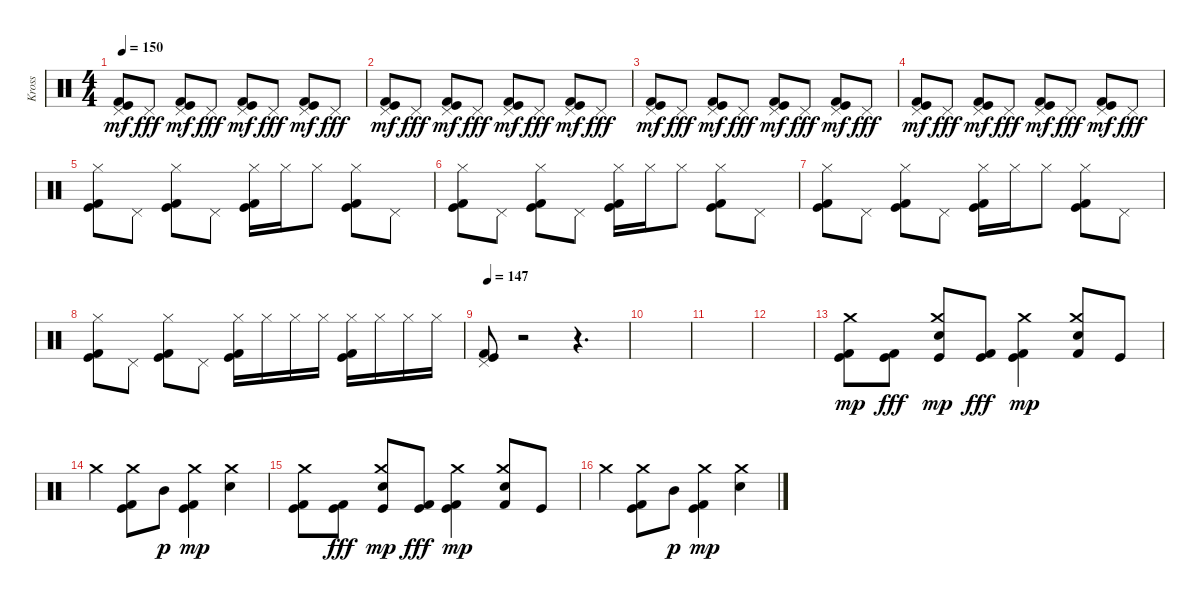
\track ("Kross" "Kross") {instrument percussion}
\staff {score}
\articulation defaults
\ts (4 4)
\tempo 150
\clef neutral
\ks c
("Kick (hit)" "Kick (hit) 2" "Pedal Hi-Hat (hit)").8{dy mf} "Pedal Hi-Hat (hit)".8{dy fff} ("Kick (hit)" "Kick (hit) 2" "Pedal Hi-Hat (hit)").8{dy mf} "Pedal Hi-Hat (hit)".8{dy fff} ("Kick (hit)" "Kick (hit) 2" "Pedal Hi-Hat (hit)").8{dy mf} "Pedal Hi-Hat (hit)".8{dy fff} ("Kick (hit)" "Kick (hit) 2" "Pedal Hi-Hat (hit)").8{dy mf} "Pedal Hi-Hat (hit)".8{dy fff} |
("Kick (hit)" "Kick (hit) 2" "Pedal Hi-Hat (hit)").8{dy mf} "Pedal Hi-Hat (hit)".8{dy fff} ("Kick (hit)" "Kick (hit) 2" "Pedal Hi-Hat (hit)").8{dy mf} "Pedal Hi-Hat (hit)".8{dy fff} ("Kick (hit)" "Kick (hit) 2" "Pedal Hi-Hat (hit)").8{dy mf} "Pedal Hi-Hat (hit)".8{dy fff} ("Kick (hit)" "Kick (hit) 2" "Pedal Hi-Hat (hit)").8{dy mf} "Pedal Hi-Hat (hit)".8{dy fff} |
("Kick (hit)" "Kick (hit) 2" "Pedal Hi-Hat (hit)").8{dy mf} "Pedal Hi-Hat (hit)".8{dy fff} ("Kick (hit)" "Kick (hit) 2" "Pedal Hi-Hat (hit)").8{dy mf} "Pedal Hi-Hat (hit)".8{dy fff} ("Kick (hit)" "Kick (hit) 2" "Pedal Hi-Hat (hit)").8{dy mf} "Pedal Hi-Hat (hit)".8{dy fff} ("Kick (hit)" "Kick (hit) 2" "Pedal Hi-Hat (hit)").8{dy mf} "Pedal Hi-Hat (hit)".8{dy fff} |
("Kick (hit)" "Kick (hit) 2" "Pedal Hi-Hat (hit)").8{dy mf} "Pedal Hi-Hat (hit)".8{dy fff} ("Kick (hit)" "Kick (hit) 2" "Pedal Hi-Hat (hit)").8{dy mf} "Pedal Hi-Hat (hit)".8{dy fff} ("Kick (hit)" "Kick (hit) 2" "Pedal Hi-Hat (hit)").8{dy mf} "Pedal Hi-Hat (hit)".8{dy fff} ("Kick (hit)" "Kick (hit) 2" "Pedal Hi-Hat (hit)").8{dy mf} "Pedal Hi-Hat (hit)".8{dy fff} |
("Kick (hit) 2" "Kick (hit)" "Hi-Hat (closed)").8 "Pedal Hi-Hat (hit)".8 ("Kick (hit) 2" "Kick (hit)" "Hi-Hat (closed)").8 "Pedal Hi-Hat (hit)".8 ("Kick (hit) 2" "Kick (hit)" "Hi-Hat (closed)").16 "Hi-Hat (closed)".16 "Hi-Hat (closed)".8 ("Kick (hit) 2" "Kick (hit)" "Hi-Hat (closed)").8 "Pedal Hi-Hat (hit)".8 |
("Kick (hit) 2" "Kick (hit)" "Hi-Hat (closed)").8 "Pedal Hi-Hat (hit)".8 ("Kick (hit) 2" "Kick (hit)" "Hi-Hat (closed)").8 "Pedal Hi-Hat (hit)".8 ("Kick (hit) 2" "Kick (hit)" "Hi-Hat (closed)").16 "Hi-Hat (closed)".16 "Hi-Hat (closed)".8 ("Kick (hit) 2" "Kick (hit)" "Hi-Hat (closed)").8 "Pedal Hi-Hat (hit)".8 |
("Kick (hit) 2" "Kick (hit)" "Hi-Hat (closed)").8 "Pedal Hi-Hat (hit)".8 ("Kick (hit) 2" "Kick (hit)" "Hi-Hat (closed)").8 "Pedal Hi-Hat (hit)".8 ("Kick (hit) 2" "Kick (hit)" "Hi-Hat (closed)").16 "Hi-Hat (closed)".16 "Hi-Hat (closed)".8 ("Kick (hit) 2" "Kick (hit)" "Hi-Hat (closed)").8 "Pedal Hi-Hat (hit)".8 |
("Kick (hit) 2" "Kick (hit)" "Hi-Hat (closed)").8 "Pedal Hi-Hat (hit)".8 ("Kick (hit) 2" "Kick (hit)" "Hi-Hat (closed)").8 "Pedal Hi-Hat (hit)".8 ("Kick (hit) 2" "Kick (hit)" "Hi-Hat (closed)").16 "Hi-Hat (closed)".16 "Hi-Hat (closed)".16 "Hi-Hat (closed)".16 ("Hi-Hat (closed)" "Kick (hit)" "Kick (hit) 2").16 "Hi-Hat (closed)".16 "Hi-Hat (closed)".16 "Hi-Hat (closed)".16 |
\tempo 147
("Pedal Hi-Hat (hit)" "Kick (hit)" "Kick (hit) 2").8 r.2 r.4{d} |
|
|
|
("Kick (hit) 2" "Kick (hit)" "Crash medium (hit)").8{dy mp volume 16} ("Kick (hit) 2" "Kick (hit)").8{dy fff} ("Snare (hit) 2" "Kick (hit)" "Crash medium (hit)").8{dy mp} ("Kick (hit) 2" "Kick (hit)").8{dy fff} ("Kick (hit) 2" "Kick (hit)" "Crash medium (hit)").4{dy mp} ("Snare (hit) 2" "Kick (hit) 2" "Crash medium (hit)").8 "Kick (hit)".8 |
"Crash medium (hit)".4 ("Kick (hit) 2" "Kick (hit)" "Crash medium (hit)").8 "Mid Tom (hit)".8{dy p} ("Kick (hit) 2" "Kick (hit)" "Crash medium (hit)").4{dy mp} ("Snare (hit) 2" "Crash medium (hit)").4 |
("Kick (hit) 2" "Kick (hit)" "Crash medium (hit)").8 ("Kick (hit) 2" "Kick (hit)").8{dy fff} ("Snare (hit) 2" "Kick (hit)" "Crash medium (hit)").8{dy mp} ("Kick (hit) 2" "Kick (hit)").8{dy fff} ("Kick (hit) 2" "Kick (hit)" "Crash medium (hit)").4{dy mp} ("Snare (hit) 2" "Kick (hit) 2" "Crash medium (hit)").8 "Kick (hit)".8 |
"Crash medium (hit)".4 ("Kick (hit) 2" "Kick (hit)" "Crash medium (hit)").8 "Mid Tom (hit)".8{dy p} ("Kick (hit) 2" "Kick (hit)" "Crash medium (hit)").4{dy mp} ("Snare (hit) 2" "Crash medium (hit)").4
